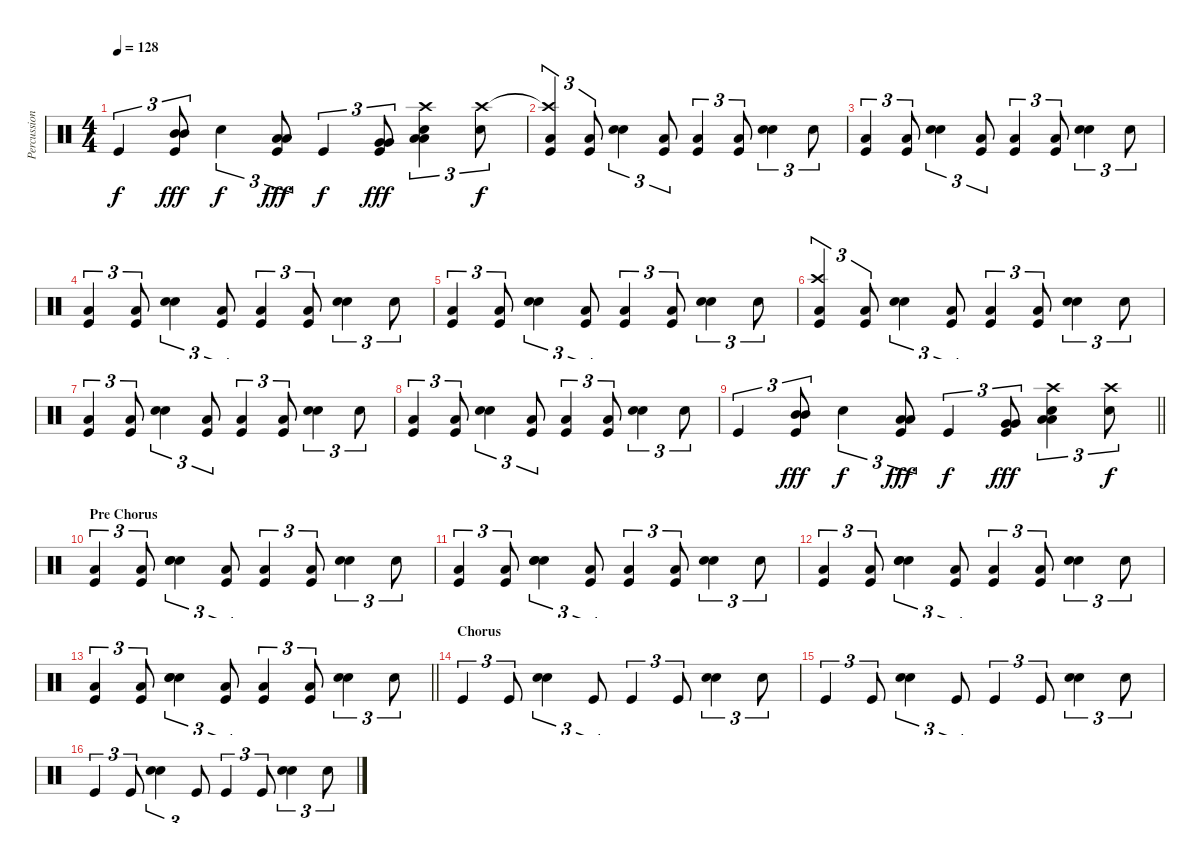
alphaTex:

\track ("Percussion" "Percussion") {instrument percussion}
\staff {score}
\articulation defaults
\ts (4 4)
\tempo 128
\clef neutral
\ks c "Kick (hit)".4{tu (3 2) dy f}
("Mid Tom (hit)" "Mid Tom (hit)" "Kick (hit)").8{tu (3 2) dy fff} "Hand Clap (hit)".4{tu (3 2) dy f} ("Low Tom (hit)" "Low Tom (hit)" "Kick (hit)").8{tu (3 2) dy fff} "Kick (hit)".4{tu (3 2) dy f} ("Very Low Tom (hit)" "Very Low Tom (hit)" "Kick (hit)").8{tu (3 2) dy fff} ("Crash high (hit)" "Hand Clap (hit)" "Low Floor Tom (hit)" "Low Floor Tom (hit)").4{tu (3 2)} ("Crash high (hit)" "Hand Clap (hit)").8{tu (3 2) dy f} |
("Crash high (hit)"{t} "Low Floor Tom (hit)" "Kick (hit)").4{tu (3 2)} ("Low Floor Tom (hit)" "Kick (hit)").8{tu (3 2)} ("Hand Clap (hit)" "Electric Snare (hit)").4{tu (3 2)} ("Low Floor Tom (hit)" "Kick (hit)").8{tu (3 2)} ("Low Floor Tom (hit)" "Kick (hit)").4{tu (3 2)} ("Low Floor Tom (hit)" "Kick (hit)").8{tu (3 2)} ("Hand Clap (hit)" "Electric Snare (hit)").4{tu (3 2)} "Hand Clap (hit)".8{tu (3 2)} |
("Low Floor Tom (hit)" "Kick (hit)").4{tu (3 2)} ("Low Floor Tom (hit)" "Kick (hit)").8{tu (3 2)} ("Hand Clap (hit)" "Electric Snare (hit)").4{tu (3 2)} ("Low Floor Tom (hit)" "Kick (hit)").8{tu (3 2)} ("Low Floor Tom (hit)" "Kick (hit)").4{tu (3 2)} ("Low Floor Tom (hit)" "Kick (hit)").8{tu (3 2)} ("Hand Clap (hit)" "Electric Snare (hit)").4{tu (3 2)} "Hand Clap (hit)".8{tu (3 2)} |
("Low Floor Tom (hit)" "Kick (hit)").4{tu (3 2)} ("Low Floor Tom (hit)" "Kick (hit)").8{tu (3 2)} ("Hand Clap (hit)" "Electric Snare (hit)").4{tu (3 2)} ("Low Floor Tom (hit)" "Kick (hit)").8{tu (3 2)} ("Low Floor Tom (hit)" "Kick (hit)").4{tu (3 2)} ("Low Floor Tom (hit)" "Kick (hit)").8{tu (3 2)} ("Hand Clap (hit)" "Electric Snare (hit)").4{tu (3 2)} "Hand Clap (hit)".8{tu (3 2)} |
("Low Floor Tom (hit)" "Kick (hit)").4{tu (3 2)} ("Low Floor Tom (hit)" "Kick (hit)").8{tu (3 2)} ("Hand Clap (hit)" "Electric Snare (hit)").4{tu (3 2)} ("Low Floor Tom (hit)" "Kick (hit)").8{tu (3 2)} ("Low Floor Tom (hit)" "Kick (hit)").4{tu (3 2)} ("Low Floor Tom (hit)" "Kick (hit)").8{tu (3 2)} ("Hand Clap (hit)" "Electric Snare (hit)").4{tu (3 2)} "Hand Clap (hit)".8{tu (3 2)} |
("Crash high (hit)" "Low Floor Tom (hit)" "Kick (hit)").4{tu (3 2)} ("Low Floor Tom (hit)" "Kick (hit)").8{tu (3 2)} ("Hand Clap (hit)" "Electric Snare (hit)").4{tu (3 2)} ("Low Floor Tom (hit)" "Kick (hit)").8{tu (3 2)} ("Low Floor Tom (hit)" "Kick (hit)").4{tu (3 2)} ("Low Floor Tom (hit)" "Kick (hit)").8{tu (3 2)} ("Hand Clap (hit)" "Electric Snare (hit)").4{tu (3 2)} "Hand Clap (hit)".8{tu (3 2)} |
("Low Floor Tom (hit)" "Kick (hit)").4{tu (3 2)} ("Low Floor Tom (hit)" "Kick (hit)").8{tu (3 2)} ("Hand Clap (hit)" "Electric Snare (hit)").4{tu (3 2)} ("Low Floor Tom (hit)" "Kick (hit)").8{tu (3 2)} ("Low Floor Tom (hit)" "Kick (hit)").4{tu (3 2)} ("Low Floor Tom (hit)" "Kick (hit)").8{tu (3 2)} ("Hand Clap (hit)" "Electric Snare (hit)").4{tu (3 2)} "Hand Clap (hit)".8{tu (3 2)} |
("Low Floor Tom (hit)" "Kick (hit)").4{tu (3 2)} ("Low Floor Tom (hit)" "Kick (hit)").8{tu (3 2)} ("Hand Clap (hit)" "Electric Snare (hit)").4{tu (3 2)} ("Low Floor Tom (hit)" "Kick (hit)").8{tu (3 2)} ("Low Floor Tom (hit)" "Kick (hit)").4{tu (3 2)} ("Low Floor Tom (hit)" "Kick (hit)").8{tu (3 2)} ("Hand Clap (hit)" "Electric Snare (hit)").4{tu (3 2)} "Hand Clap (hit)".8{tu (3 2)} |
\barLineRight lightlight "Kick (hit)".4{tu (3 2)}
("Mid Tom (hit)" "Mid Tom (hit)" "Kick (hit)").8{tu (3 2) dy fff} "Hand Clap (hit)".4{tu (3 2) dy f} ("Low Tom (hit)" "Low Tom (hit)" "Kick (hit)").8{tu (3 2) dy fff} "Kick (hit)".4{tu (3 2) dy f} ("Very Low Tom (hit)" "Very Low Tom (hit)" "Kick (hit)").8{tu (3 2) dy fff} ("Crash high (hit)" "Hand Clap (hit)" "Low Floor Tom (hit)" "Low Floor Tom (hit)").4{tu (3 2)} ("Crash high (hit)" "Hand Clap (hit)").8{tu (3 2) dy f} |
\section ("" "Pre Chorus")
("Low Floor Tom (hit)" "Kick (hit)").4{tu (3 2)} ("Low Floor Tom (hit)" "Kick (hit)").8{tu (3 2)} ("Hand Clap (hit)" "Electric Snare (hit)" "Snare (hit) 2").4{tu (3 2)} ("Low Floor Tom (hit)" "Kick (hit)").8{tu (3 2)} ("Low Floor Tom (hit)" "Kick (hit)").4{tu (3 2)} ("Low Floor Tom (hit)" "Kick (hit)").8{tu (3 2)} ("Hand Clap (hit)" "Electric Snare (hit)").4{tu (3 2)} "Hand Clap (hit)".8{tu (3 2)} |
("Low Floor Tom (hit)" "Kick (hit)").4{tu (3 2)} ("Low Floor Tom (hit)" "Kick (hit)").8{tu (3 2)} ("Hand Clap (hit)" "Electric Snare (hit)" "Snare (hit) 2").4{tu (3 2)} ("Low Floor Tom (hit)" "Kick (hit)").8{tu (3 2)} ("Low Floor Tom (hit)" "Kick (hit)").4{tu (3 2)} ("Low Floor Tom (hit)" "Kick (hit)").8{tu (3 2)} ("Hand Clap (hit)" "Electric Snare (hit)").4{tu (3 2)} "Hand Clap (hit)".8{tu (3 2)} |
("Low Floor Tom (hit)" "Kick (hit)").4{tu (3 2)} ("Low Floor Tom (hit)" "Kick (hit)").8{tu (3 2)} ("Hand Clap (hit)" "Electric Snare (hit)" "Snare (hit) 2").4{tu (3 2)} ("Low Floor Tom (hit)" "Kick (hit)").8{tu (3 2)} ("Low Floor Tom (hit)" "Kick (hit)").4{tu (3 2)} ("Low Floor Tom (hit)" "Kick (hit)").8{tu (3 2)} ("Hand Clap (hit)" "Electric Snare (hit)").4{tu (3 2)} "Hand Clap (hit)".8{tu (3 2)} |
\barLineRight lightlight
("Low Floor Tom (hit)" "Kick (hit)").4{tu (3 2)} ("Low Floor Tom (hit)" "Kick (hit)").8{tu (3 2)} ("Hand Clap (hit)" "Electric Snare (hit)" "Snare (hit) 2").4{tu (3 2)} ("Low Floor Tom (hit)" "Kick (hit)").8{tu (3 2)} ("Low Floor Tom (hit)" "Kick (hit)").4{tu (3 2)} ("Low Floor Tom (hit)" "Kick (hit)").8{tu (3 2)} ("Hand Clap (hit)" "Electric Snare (hit)").4{tu (3 2)} "Hand Clap (hit)".8{tu (3 2)} |
\section ("" "Chorus")
"Kick (hit)".4{tu (3 2)} "Kick (hit)".8{tu (3 2)} ("Hand Clap (hit)" "Electric Snare (hit)").4{tu (3 2)} "Kick (hit)".8{tu (3 2)} "Kick (hit)".4{tu (3 2)} "Kick (hit)".8{tu (3 2)} ("Hand Clap (hit)" "Electric Snare (hit)").4{tu (3 2)} "Hand Clap (hit)".8{tu (3 2)} |
"Kick (hit)".4{tu (3 2)} "Kick (hit)".8{tu (3 2)} ("Hand Clap (hit)" "Electric Snare (hit)").4{tu (3 2)} "Kick (hit)".8{tu (3 2)} "Kick (hit)".4{tu (3 2)} "Kick (hit)".8{tu (3 2)} ("Hand Clap (hit)" "Electric Snare (hit)").4{tu (3 2)} "Hand Clap (hit)".8{tu (3 2)} |
"Kick (hit)".4{tu (3 2)} "Kick (hit)".8{tu (3 2)} ("Hand Clap (hit)" "Electric Snare (hit)").4{tu (3 2)} "Kick (hit)".8{tu (3 2)} "Kick (hit)".4{tu (3 2)} "Kick (hit)".8{tu (3 2)} ("Hand Clap (hit)" "Electric Snare (hit)").4{tu (3 2)} "Hand Clap (hit)".8{tu (3 2)}
